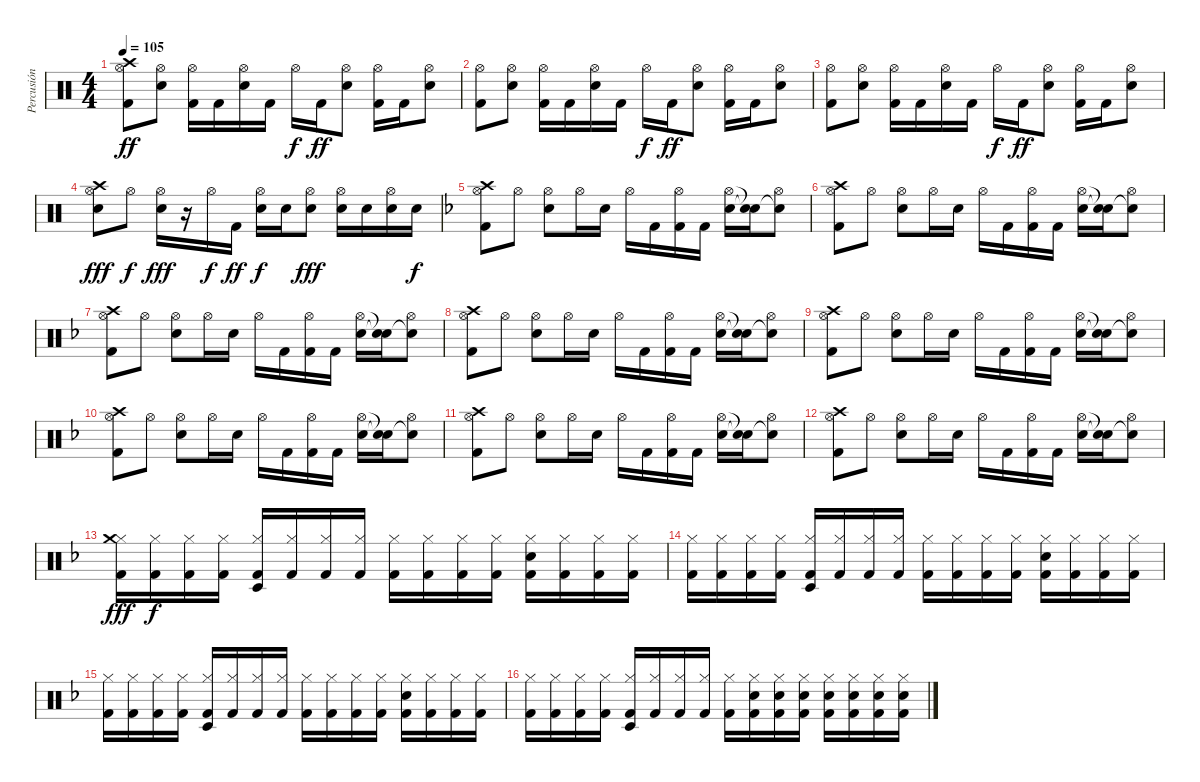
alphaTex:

\track ("Percusión" "Percusión") {instrument percussion}
\staff {score}
\articulation defaults
\ts (4 4)
\tempo 105
\clef neutral
\ks c
("Hi-Hat (open)" "Crash high (hit)" "Kick (hit) 2").8{dy ff} ("Hi-Hat (open)" "Snare (hit) 2").8 ("Hi-Hat (open)" "Kick (hit) 2").16 "Kick (hit) 2".16 ("Hi-Hat (open)" "Snare (hit) 2").16 "Kick (hit) 2".16 "Hi-Hat (open)".16{dy f} "Kick (hit) 2".16{dy ff} ("Hi-Hat (open)" "Snare (hit) 2").8 ("Hi-Hat (open)" "Kick (hit) 2").16 "Kick (hit) 2".16 ("Hi-Hat (open)" "Snare (hit) 2").8 |
("Hi-Hat (open)" "Kick (hit) 2").8 ("Hi-Hat (open)" "Snare (hit) 2").8 ("Hi-Hat (open)" "Kick (hit) 2").16 "Kick (hit) 2".16 ("Hi-Hat (open)" "Snare (hit) 2").16 "Kick (hit) 2".16 "Hi-Hat (open)".16{dy f} "Kick (hit) 2".16{dy ff} ("Hi-Hat (open)" "Snare (hit) 2").8 ("Hi-Hat (open)" "Kick (hit) 2").16 "Kick (hit) 2".16 ("Hi-Hat (open)" "Snare (hit) 2").8 |
("Hi-Hat (open)" "Kick (hit) 2").8 ("Hi-Hat (open)" "Snare (hit) 2").8 ("Hi-Hat (open)" "Kick (hit) 2").16 "Kick (hit) 2".16 ("Hi-Hat (open)" "Snare (hit) 2").16 "Kick (hit) 2".16 "Hi-Hat (open)".16{dy f} "Kick (hit) 2".16{dy ff} ("Hi-Hat (open)" "Snare (hit) 2").8 ("Hi-Hat (open)" "Kick (hit) 2").16 "Kick (hit) 2".16 ("Hi-Hat (open)" "Snare (hit) 2").8 |
("Hi-Hat (open)" "Crash high (hit)" "Snare (hit) 2").8{dy fff} "Hi-Hat (open)".8{dy f} ("Hi-Hat (open)" "Snare (hit) 2").16{dy fff} r.16 "Hi-Hat (open)".16{dy f} "Kick (hit) 2".16{dy ff} ("Hi-Hat (open)" "Snare (hit) 2").16{dy f} "Snare (hit) 2".16 ("Hi-Hat (open)" "Snare (hit) 2").8{dy fff} ("Hi-Hat (open)" "Snare (hit) 2").16 "Snare (hit) 2".16 ("Hi-Hat (open)" "Snare (hit) 2").16 "Snare (hit) 2".16{dy f} |
\ks f
("Hi-Hat (open)" "Crash high (hit)" "Kick (hit) 2").8 "Hi-Hat (open)".8 ("Hi-Hat (open)" "Snare (hit) 2").8 "Hi-Hat (open)".16 "Snare (hit) 2".16 "Hi-Hat (open)".16 "Kick (hit) 2".16 ("Hi-Hat (open)" "Kick (hit) 2").16 "Kick (hit) 2".16 ("Hi-Hat (open)" "Snare (hit) 2").16 ("Snare (hit)"{t} "Snare (hit)"{t}).16 ("Hi-Hat (open)" "Snare (hit)"{t}).8 |
("Hi-Hat (open)" "Crash high (hit)" "Kick (hit) 2").8 "Hi-Hat (open)".8 ("Hi-Hat (open)" "Snare (hit) 2").8 "Hi-Hat (open)".16 "Snare (hit) 2".16 "Hi-Hat (open)".16 "Kick (hit) 2".16 ("Hi-Hat (open)" "Kick (hit) 2").16 "Kick (hit) 2".16 ("Hi-Hat (open)" "Snare (hit) 2").16 ("Snare (hit)"{t} "Snare (hit)"{t}).16 ("Hi-Hat (open)" "Snare (hit)"{t}).8 |
("Hi-Hat (open)" "Crash high (hit)" "Kick (hit) 2").8 "Hi-Hat (open)".8 ("Hi-Hat (open)" "Snare (hit) 2").8 "Hi-Hat (open)".16 "Snare (hit) 2".16 "Hi-Hat (open)".16 "Kick (hit) 2".16 ("Hi-Hat (open)" "Kick (hit) 2").16 "Kick (hit) 2".16 ("Hi-Hat (open)" "Snare (hit) 2").16 ("Snare (hit)"{t} "Snare (hit)"{t}).16 ("Hi-Hat (open)" "Snare (hit)"{t}).8 |
("Hi-Hat (open)" "Crash high (hit)" "Kick (hit) 2").8 "Hi-Hat (open)".8 ("Hi-Hat (open)" "Snare (hit) 2").8 "Hi-Hat (open)".16 "Snare (hit) 2".16 "Hi-Hat (open)".16 "Kick (hit) 2".16 ("Hi-Hat (open)" "Kick (hit) 2").16 "Kick (hit) 2".16 ("Hi-Hat (open)" "Snare (hit) 2").16 ("Snare (hit)"{t} "Snare (hit)"{t}).16 ("Hi-Hat (open)" "Snare (hit)"{t}).8 |
("Hi-Hat (open)" "Crash high (hit)" "Kick (hit) 2").8 "Hi-Hat (open)".8 ("Hi-Hat (open)" "Snare (hit) 2").8 "Hi-Hat (open)".16 "Snare (hit) 2".16 "Hi-Hat (open)".16 "Kick (hit) 2".16 ("Hi-Hat (open)" "Kick (hit) 2").16 "Kick (hit) 2".16 ("Hi-Hat (open)" "Snare (hit) 2").16 ("Snare (hit)"{t} "Snare (hit)"{t}).16 ("Hi-Hat (open)" "Snare (hit)"{t}).8 |
("Hi-Hat (open)" "Crash high (hit)" "Kick (hit) 2").8 "Hi-Hat (open)".8 ("Hi-Hat (open)" "Snare (hit) 2").8 "Hi-Hat (open)".16 "Snare (hit) 2".16 "Hi-Hat (open)".16 "Kick (hit) 2".16 ("Hi-Hat (open)" "Kick (hit) 2").16 "Kick (hit) 2".16 ("Hi-Hat (open)" "Snare (hit) 2").16 ("Snare (hit)"{t} "Snare (hit)"{t}).16 ("Hi-Hat (open)" "Snare (hit)"{t}).8 |
("Hi-Hat (open)" "Crash high (hit)" "Kick (hit) 2").8 "Hi-Hat (open)".8 ("Hi-Hat (open)" "Snare (hit) 2").8 "Hi-Hat (open)".16 "Snare (hit) 2".16 "Hi-Hat (open)".16 "Kick (hit) 2".16 ("Hi-Hat (open)" "Kick (hit) 2").16 "Kick (hit) 2".16 ("Hi-Hat (open)" "Snare (hit) 2").16 ("Snare (hit)"{t} "Snare (hit)"{t}).16 ("Hi-Hat (open)" "Snare (hit)"{t}).8 |
("Hi-Hat (open)" "Crash high (hit)" "Kick (hit) 2").8 "Hi-Hat (open)".8 ("Hi-Hat (open)" "Snare (hit) 2").8 "Hi-Hat (open)".16 "Snare (hit) 2".16 "Hi-Hat (open)".16 "Kick (hit) 2".16 ("Hi-Hat (open)" "Kick (hit) 2").16 "Kick (hit) 2".16 ("Hi-Hat (open)" "Snare (hit) 2").16 ("Snare (hit)"{t} "Snare (hit)"{t}).16 ("Hi-Hat (open)" "Snare (hit)"{t}).8 |
("Hi-Hat (closed)" "Kick (hit) 2" "Crash medium (hit)").16{dy fff} ("Hi-Hat (closed)" "Kick (hit) 2").16{dy f} ("Hi-Hat (closed)" "Kick (hit) 2").16 ("Hi-Hat (closed)" "Kick (hit) 2").16 ("Hi-Hat (closed)" "Timbale low (hit)" "Kick (hit) 2").16 ("Hi-Hat (closed)" "Kick (hit) 2").16 ("Hi-Hat (closed)" "Kick (hit) 2").16 ("Hi-Hat (closed)" "Kick (hit) 2").16 ("Hi-Hat (closed)" "Kick (hit) 2").16 ("Hi-Hat (closed)" "Kick (hit) 2").16 ("Hi-Hat (closed)" "Kick (hit) 2").16 ("Hi-Hat (closed)" "Kick (hit) 2").16 ("Hi-Hat (closed)" "Snare (hit) 2" "Kick (hit) 2").16 ("Hi-Hat (closed)" "Kick (hit) 2").16 ("Hi-Hat (closed)" "Kick (hit) 2").16 ("Hi-Hat (closed)" "Kick (hit) 2").16 |
("Hi-Hat (closed)" "Kick (hit) 2").16 ("Hi-Hat (closed)" "Kick (hit) 2").16 ("Hi-Hat (closed)" "Kick (hit) 2").16 ("Hi-Hat (closed)" "Kick (hit) 2").16 ("Hi-Hat (closed)" "Timbale low (hit)" "Kick (hit) 2").16 ("Hi-Hat (closed)" "Kick (hit) 2").16 ("Hi-Hat (closed)" "Kick (hit) 2").16 ("Hi-Hat (closed)" "Kick (hit) 2").16 ("Hi-Hat (closed)" "Kick (hit) 2").16 ("Hi-Hat (closed)" "Kick (hit) 2").16 ("Hi-Hat (closed)" "Kick (hit) 2").16 ("Hi-Hat (closed)" "Kick (hit) 2").16 ("Hi-Hat (closed)" "Snare (hit) 2" "Kick (hit) 2").16 ("Hi-Hat (closed)" "Kick (hit) 2").16 ("Hi-Hat (closed)" "Kick (hit) 2").16 ("Hi-Hat (closed)" "Kick (hit) 2").16 |
("Hi-Hat (closed)" "Kick (hit) 2").16 ("Hi-Hat (closed)" "Kick (hit) 2").16 ("Hi-Hat (closed)" "Kick (hit) 2").16 ("Hi-Hat (closed)" "Kick (hit) 2").16 ("Hi-Hat (closed)" "Timbale low (hit)" "Kick (hit) 2").16 ("Hi-Hat (closed)" "Kick (hit) 2").16 ("Hi-Hat (closed)" "Kick (hit) 2").16 ("Hi-Hat (closed)" "Kick (hit) 2").16 ("Hi-Hat (closed)" "Kick (hit) 2").16 ("Hi-Hat (closed)" "Kick (hit) 2").16 ("Hi-Hat (closed)" "Kick (hit) 2").16 ("Hi-Hat (closed)" "Kick (hit) 2").16 ("Hi-Hat (closed)" "Snare (hit) 2" "Kick (hit) 2").16 ("Hi-Hat (closed)" "Kick (hit) 2").16 ("Hi-Hat (closed)" "Kick (hit) 2").16 ("Hi-Hat (closed)" "Kick (hit) 2").16 |
("Hi-Hat (closed)" "Kick (hit) 2").16 ("Hi-Hat (closed)" "Kick (hit) 2").16 ("Hi-Hat (closed)" "Kick (hit) 2").16 ("Hi-Hat (closed)" "Kick (hit) 2").16 ("Hi-Hat (closed)" "Timbale low (hit)" "Kick (hit) 2").16 ("Hi-Hat (closed)" "Kick (hit) 2").16 ("Hi-Hat (closed)" "Kick (hit) 2").16 ("Hi-Hat (closed)" "Kick (hit) 2").16 ("Hi-Hat (closed)" "Kick (hit) 2").16 ("Hi-Hat (closed)" "Snare (hit) 2" "Kick (hit) 2").16 ("Hi-Hat (closed)" "Snare (hit) 2" "Kick (hit) 2").16 ("Hi-Hat (closed)" "Snare (hit) 2" "Kick (hit) 2").16 ("Hi-Hat (closed)" "Snare (hit) 2" "Kick (hit) 2").16 ("Hi-Hat (closed)" "Snare (hit) 2" "Kick (hit) 2").16 ("Hi-Hat (closed)" "Snare (hit) 2" "Kick (hit) 2").16 ("Hi-Hat (closed)" "Snare (hit) 2" "Kick (hit) 2").16
